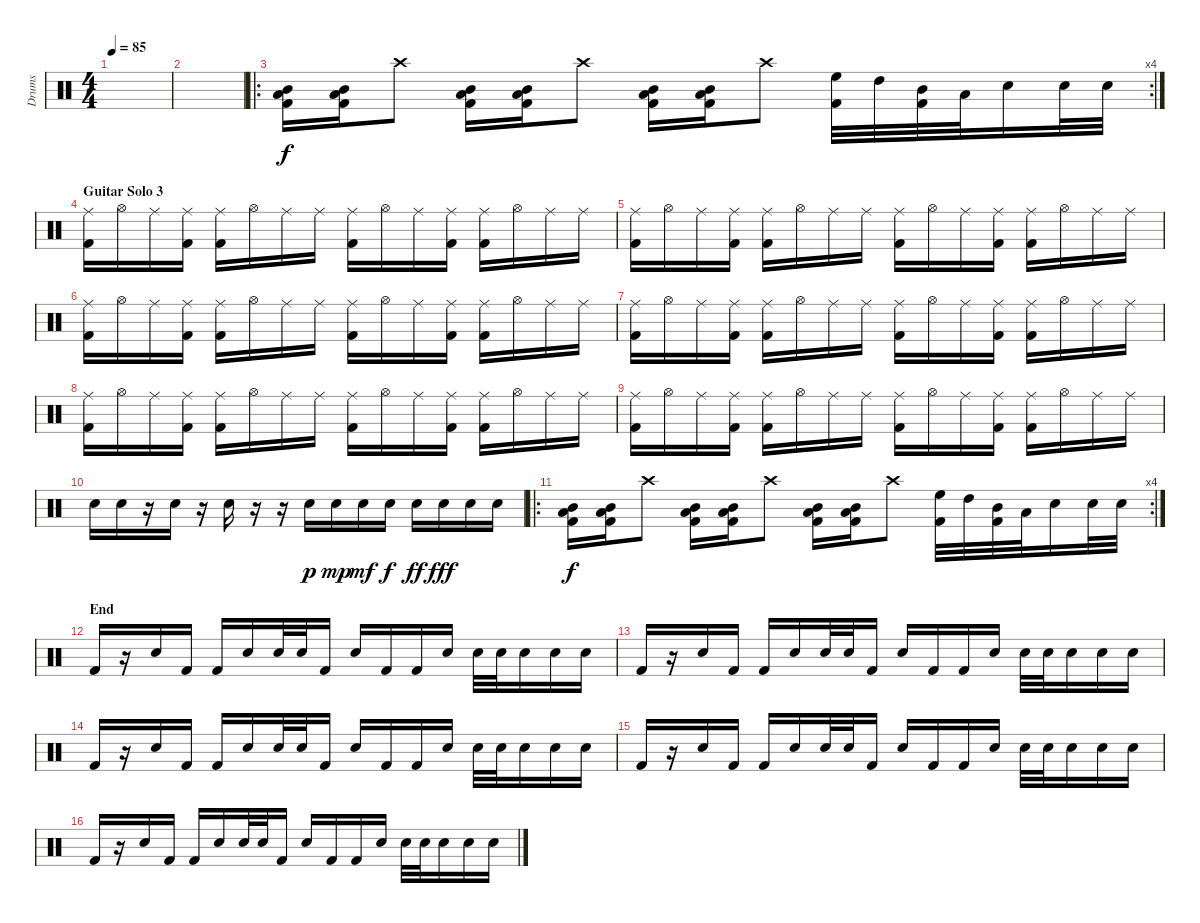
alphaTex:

\track ("Drums" "Drums") {instrument percussion}
\staff {score}
\articulation defaults
\ts (4 4)
\tempo 85
\clef neutral
\ks c
|
|
\ro
\rc 4
("Low Tom (hit)" "Mid Tom (hit)" "Kick (hit) 2").16 ("Low Tom (hit)" "Mid Tom (hit)" "Kick (hit) 2").16 "Crash high (hit)".8 ("Low Tom (hit)" "Mid Tom (hit)" "Kick (hit) 2").16 ("Low Tom (hit)" "Mid Tom (hit)" "Kick (hit) 2").16 "Crash high (hit)".8 ("Low Tom (hit)" "Mid Tom (hit)" "Kick (hit) 2").16 ("Low Tom (hit)" "Mid Tom (hit)" "Kick (hit) 2").16 "Crash high (hit)".8 ("High Floor Tom (hit)" "Kick (hit) 2").32 "High Tom (hit)".32 ("Mid Tom (hit)" "Kick (hit) 2").32 "Low Tom (hit)".32 "Electric Snare (hit)".16 "Snare (hit) 2".32 "Snare (hit) 2".32 |
\section ("" "Guitar Solo 3  ")
("Ride (middle)" "Kick (hit) 2").16 "Hi-Hat (open)".16 "Ride (middle)".16 ("Ride (middle)" "Kick (hit) 2").16 ("Ride (middle)" "Kick (hit) 2").16 "Hi-Hat (open)".16 "Ride (middle)".16 "Ride (middle)".16 ("Ride (middle)" "Kick (hit) 2").16 "Hi-Hat (open)".16 "Ride (middle)".16 ("Ride (middle)" "Kick (hit) 2").16 ("Ride (middle)" "Kick (hit) 2").16 "Hi-Hat (open)".16 "Ride (middle)".16 "Ride (middle)".16 |
("Ride (middle)" "Kick (hit) 2").16 "Hi-Hat (open)".16 "Ride (middle)".16 ("Ride (middle)" "Kick (hit) 2").16 ("Ride (middle)" "Kick (hit) 2").16 "Hi-Hat (open)".16 "Ride (middle)".16 "Ride (middle)".16 ("Ride (middle)" "Kick (hit) 2").16 "Hi-Hat (open)".16 "Ride (middle)".16 ("Ride (middle)" "Kick (hit) 2").16 ("Ride (middle)" "Kick (hit) 2").16 "Hi-Hat (open)".16 "Ride (middle)".16 "Ride (middle)".16 |
("Ride (middle)" "Kick (hit) 2").16 "Hi-Hat (open)".16 "Ride (middle)".16 ("Ride (middle)" "Kick (hit) 2").16 ("Ride (middle)" "Kick (hit) 2").16 "Hi-Hat (open)".16 "Ride (middle)".16 "Ride (middle)".16 ("Ride (middle)" "Kick (hit) 2").16 "Hi-Hat (open)".16 "Ride (middle)".16 ("Ride (middle)" "Kick (hit) 2").16 ("Ride (middle)" "Kick (hit) 2").16 "Hi-Hat (open)".16 "Ride (middle)".16 "Ride (middle)".16 |
("Ride (middle)" "Kick (hit) 2").16 "Hi-Hat (open)".16 "Ride (middle)".16 ("Ride (middle)" "Kick (hit) 2").16 ("Ride (middle)" "Kick (hit) 2").16 "Hi-Hat (open)".16 "Ride (middle)".16 "Ride (middle)".16 ("Ride (middle)" "Kick (hit) 2").16 "Hi-Hat (open)".16 "Ride (middle)".16 ("Ride (middle)" "Kick (hit) 2").16 ("Ride (middle)" "Kick (hit) 2").16 "Hi-Hat (open)".16 "Ride (middle)".16 "Ride (middle)".16 |
("Ride (middle)" "Kick (hit) 2").16 "Hi-Hat (open)".16 "Ride (middle)".16 ("Ride (middle)" "Kick (hit) 2").16 ("Ride (middle)" "Kick (hit) 2").16 "Hi-Hat (open)".16 "Ride (middle)".16 "Ride (middle)".16 ("Ride (middle)" "Kick (hit) 2").16 "Hi-Hat (open)".16 "Ride (middle)".16 ("Ride (middle)" "Kick (hit) 2").16 ("Ride (middle)" "Kick (hit) 2").16 "Hi-Hat (open)".16 "Ride (middle)".16 "Ride (middle)".16 |
("Ride (middle)" "Kick (hit) 2").16 "Hi-Hat (open)".16 "Ride (middle)".16 ("Ride (middle)" "Kick (hit) 2").16 ("Ride (middle)" "Kick (hit) 2").16 "Hi-Hat (open)".16 "Ride (middle)".16 "Ride (middle)".16 ("Ride (middle)" "Kick (hit) 2").16 "Hi-Hat (open)".16 "Ride (middle)".16 ("Ride (middle)" "Kick (hit) 2").16 ("Ride (middle)" "Kick (hit) 2").16 "Hi-Hat (open)".16 "Ride (middle)".16 "Ride (middle)".16 |
"Electric Snare (hit)".16 "Electric Snare (hit)".16 r.16 "Electric Snare (hit)".16 r.16 "Electric Snare (hit)".16 r.16 r.16 "Electric Snare (hit)".16{dy p} "Electric Snare (hit)".16{dy mp} "Electric Snare (hit)".16{dy mf} "Electric Snare (hit)".16{dy f} "Electric Snare (hit)".16{dy ff} "Electric Snare (hit)".16{dy fff} "Electric Snare (hit)".16 "Electric Snare (hit)".16 |
\ro
\rc 4
("Low Tom (hit)" "Mid Tom (hit)" "Kick (hit) 2").16{dy f} ("Low Tom (hit)" "Mid Tom (hit)" "Kick (hit) 2").16 "Crash high (hit)".8 ("Low Tom (hit)" "Mid Tom (hit)" "Kick (hit) 2").16 ("Low Tom (hit)" "Mid Tom (hit)" "Kick (hit) 2").16 "Crash high (hit)".8 ("Low Tom (hit)" "Mid Tom (hit)" "Kick (hit) 2").16 ("Low Tom (hit)" "Mid Tom (hit)" "Kick (hit) 2").16 "Crash high (hit)".8 ("High Floor Tom (hit)" "Kick (hit) 2").32 "High Tom (hit)".32 ("Mid Tom (hit)" "Kick (hit) 2").32 "Low Tom (hit)".32 "Electric Snare (hit)".16 "Snare (hit) 2".32 "Snare (hit) 2".32 |
\section ("" "End")
"Kick (hit) 2".16 r.16 "Electric Snare (hit)".16 "Kick (hit) 2".16 "Kick (hit) 2".16 "Electric Snare (hit)".16 "Electric Snare (hit)".32 "Electric Snare (hit)".32 "Kick (hit) 2".16 "Electric Snare (hit)".16 "Kick (hit) 2".16 "Kick (hit) 2".16 "Electric Snare (hit)".16 "Electric Snare (hit)".32 "Electric Snare (hit)".32 "Electric Snare (hit)".16 "Electric Snare (hit)".16 "Electric Snare (hit)".16 |
"Kick (hit) 2".16 r.16 "Electric Snare (hit)".16 "Kick (hit) 2".16 "Kick (hit) 2".16 "Electric Snare (hit)".16 "Electric Snare (hit)".32 "Electric Snare (hit)".32 "Kick (hit) 2".16 "Electric Snare (hit)".16 "Kick (hit) 2".16 "Kick (hit) 2".16 "Electric Snare (hit)".16 "Electric Snare (hit)".32 "Electric Snare (hit)".32 "Electric Snare (hit)".16 "Electric Snare (hit)".16 "Electric Snare (hit)".16 |
"Kick (hit) 2".16 r.16 "Electric Snare (hit)".16 "Kick (hit) 2".16 "Kick (hit) 2".16 "Electric Snare (hit)".16 "Electric Snare (hit)".32 "Electric Snare (hit)".32 "Kick (hit) 2".16 "Electric Snare (hit)".16 "Kick (hit) 2".16 "Kick (hit) 2".16 "Electric Snare (hit)".16 "Electric Snare (hit)".32 "Electric Snare (hit)".32 "Electric Snare (hit)".16 "Electric Snare (hit)".16 "Electric Snare (hit)".16 |
"Kick (hit) 2".16 r.16 "Electric Snare (hit)".16 "Kick (hit) 2".16 "Kick (hit) 2".16 "Electric Snare (hit)".16 "Electric Snare (hit)".32 "Electric Snare (hit)".32 "Kick (hit) 2".16 "Electric Snare (hit)".16 "Kick (hit) 2".16 "Kick (hit) 2".16 "Electric Snare (hit)".16 "Electric Snare (hit)".32 "Electric Snare (hit)".32 "Electric Snare (hit)".16 "Electric Snare (hit)".16 "Electric Snare (hit)".16 |
"Kick (hit) 2".16 r.16 "Electric Snare (hit)".16 "Kick (hit) 2".16 "Kick (hit) 2".16 "Electric Snare (hit)".16 "Electric Snare (hit)".32 "Electric Snare (hit)".32 "Kick (hit) 2".16 "Electric Snare (hit)".16 "Kick (hit) 2".16 "Kick (hit) 2".16 "Electric Snare (hit)".16 "Electric Snare (hit)".32 "Electric Snare (hit)".32 "Electric Snare (hit)".16 "Electric Snare (hit)".16 "Electric Snare (hit)".16
